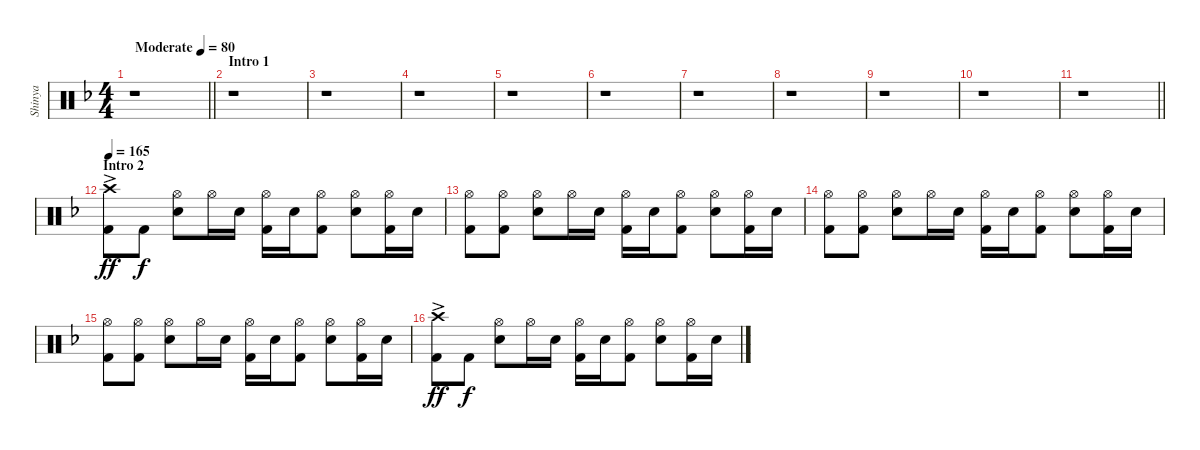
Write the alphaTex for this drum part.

\track ("Shinya" "Shinya") {instrument percussion}
\staff {score}
\articulation defaults
\ts (4 4)
\tempo (80 "Moderate")
\clef neutral
\barLineRight lightlight
\ks dminor
r.1{dy ff} |
\section ("" "Intro 1")
r.1 |
r.1 |
r.1 |
r.1 |
r.1 |
r.1 |
r.1 |
r.1 |
r.1 |
\barLineRight lightlight
r.1 |
\section ("" "Intro 2")
\tempo 165
("Crash high (hit)"{ac} "Kick (hit) 2").8 "Kick (hit) 2".8{dy f} ("Hi-Hat (open)" "Snare (hit) 2").8 "Hi-Hat (open)".16 "Snare (hit) 2".16 ("Hi-Hat (open)" "Kick (hit) 2").16 "Snare (hit) 2".16 ("Hi-Hat (open)" "Kick (hit) 2").8 ("Hi-Hat (open)" "Snare (hit) 2").8 ("Hi-Hat (open)" "Kick (hit) 2").16 "Snare (hit) 2".16 |
("Hi-Hat (open)" "Kick (hit) 2").8 ("Hi-Hat (open)" "Kick (hit) 2").8 ("Hi-Hat (open)" "Snare (hit) 2").8 "Hi-Hat (open)".16 "Snare (hit) 2".16 ("Hi-Hat (open)" "Kick (hit) 2").16 "Snare (hit) 2".16 ("Hi-Hat (open)" "Kick (hit) 2").8 ("Hi-Hat (open)" "Snare (hit) 2").8 ("Hi-Hat (open)" "Kick (hit) 2").16 "Snare (hit) 2".16 |
("Hi-Hat (open)" "Kick (hit) 2").8 ("Hi-Hat (open)" "Kick (hit) 2").8 ("Hi-Hat (open)" "Snare (hit) 2").8 "Hi-Hat (open)".16 "Snare (hit) 2".16 ("Hi-Hat (open)" "Kick (hit) 2").16 "Snare (hit) 2".16 ("Hi-Hat (open)" "Kick (hit) 2").8 ("Hi-Hat (open)" "Snare (hit) 2").8 ("Hi-Hat (open)" "Kick (hit) 2").16 "Snare (hit) 2".16 |
("Hi-Hat (open)" "Kick (hit) 2").8 ("Hi-Hat (open)" "Kick (hit) 2").8 ("Hi-Hat (open)" "Snare (hit) 2").8 "Hi-Hat (open)".16 "Snare (hit) 2".16 ("Hi-Hat (open)" "Kick (hit) 2").16 "Snare (hit) 2".16 ("Hi-Hat (open)" "Kick (hit) 2").8 ("Hi-Hat (open)" "Snare (hit) 2").8 ("Hi-Hat (open)" "Kick (hit) 2").16 "Snare (hit) 2".16 |
("Crash high (hit)"{ac} "Kick (hit) 2").8{dy ff} "Kick (hit) 2".8{dy f} ("Hi-Hat (open)" "Snare (hit) 2").8 "Hi-Hat (open)".16 "Snare (hit) 2".16 ("Hi-Hat (open)" "Kick (hit) 2").16 "Snare (hit) 2".16 ("Hi-Hat (open)" "Kick (hit) 2").8 ("Hi-Hat (open)" "Snare (hit) 2").8 ("Hi-Hat (open)" "Kick (hit) 2").16 "Snare (hit) 2".16
